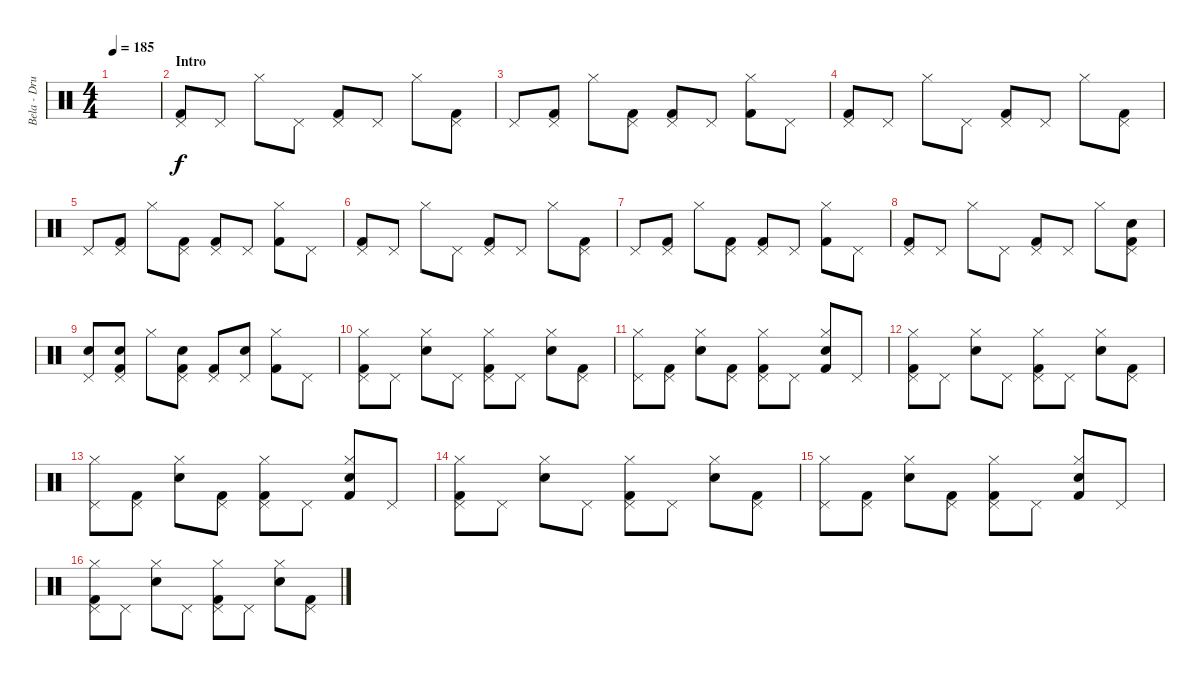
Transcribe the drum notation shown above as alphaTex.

\track ("Bela - Drums" "Bela - Dru") {instrument percussion}
\staff {score}
\articulation defaults
\ts (4 4)
\tempo 185
\clef neutral
\ks c
|
\section ("" "Intro")
("Kick (hit) 2" "Pedal Hi-Hat (hit)").8 "Pedal Hi-Hat (hit)".8 "Hi-Hat (closed)".8 "Pedal Hi-Hat (hit)".8 ("Pedal Hi-Hat (hit)" "Kick (hit) 2").8 "Pedal Hi-Hat (hit)".8 "Hi-Hat (closed)".8 ("Pedal Hi-Hat (hit)" "Kick (hit) 2").8 |
"Pedal Hi-Hat (hit)".8 ("Pedal Hi-Hat (hit)" "Kick (hit) 2").8 "Hi-Hat (closed)".8 ("Pedal Hi-Hat (hit)" "Kick (hit) 2").8 ("Kick (hit) 2" "Pedal Hi-Hat (hit)").8 "Pedal Hi-Hat (hit)".8 ("Hi-Hat (closed)" "Kick (hit) 2").8 "Pedal Hi-Hat (hit)".8 |
("Pedal Hi-Hat (hit)" "Kick (hit) 2").8 "Pedal Hi-Hat (hit)".8 "Hi-Hat (closed)".8 "Pedal Hi-Hat (hit)".8 ("Kick (hit) 2" "Pedal Hi-Hat (hit)").8 "Pedal Hi-Hat (hit)".8 "Hi-Hat (closed)".8 ("Pedal Hi-Hat (hit)" "Kick (hit) 2").8 |
"Pedal Hi-Hat (hit)".8 ("Kick (hit) 2" "Pedal Hi-Hat (hit)").8 "Hi-Hat (closed)".8 ("Kick (hit) 2" "Pedal Hi-Hat (hit)").8 ("Kick (hit) 2" "Pedal Hi-Hat (hit)").8 "Pedal Hi-Hat (hit)".8 ("Hi-Hat (closed)" "Kick (hit) 2").8 "Pedal Hi-Hat (hit)".8 |
("Kick (hit) 2" "Pedal Hi-Hat (hit)").8 "Pedal Hi-Hat (hit)".8 "Hi-Hat (closed)".8 "Pedal Hi-Hat (hit)".8 ("Pedal Hi-Hat (hit)" "Kick (hit) 2").8 "Pedal Hi-Hat (hit)".8 "Hi-Hat (closed)".8 ("Pedal Hi-Hat (hit)" "Kick (hit) 2").8 |
"Pedal Hi-Hat (hit)".8 ("Pedal Hi-Hat (hit)" "Kick (hit) 2").8 "Hi-Hat (closed)".8 ("Pedal Hi-Hat (hit)" "Kick (hit) 2").8 ("Kick (hit) 2" "Pedal Hi-Hat (hit)").8 "Pedal Hi-Hat (hit)".8 ("Hi-Hat (closed)" "Kick (hit) 2").8 "Pedal Hi-Hat (hit)".8 |
("Pedal Hi-Hat (hit)" "Kick (hit) 2").8 "Pedal Hi-Hat (hit)".8 "Hi-Hat (closed)".8 "Pedal Hi-Hat (hit)".8 ("Kick (hit) 2" "Pedal Hi-Hat (hit)").8 "Pedal Hi-Hat (hit)".8 "Hi-Hat (closed)".8 ("Electric Snare (hit)" "Pedal Hi-Hat (hit)" "Kick (hit) 2").8 |
("Pedal Hi-Hat (hit)" "Electric Snare (hit)").8 ("Kick (hit) 2" "Pedal Hi-Hat (hit)" "Electric Snare (hit)").8 "Hi-Hat (closed)".8 ("Kick (hit) 2" "Pedal Hi-Hat (hit)" "Electric Snare (hit)").8 ("Kick (hit) 2" "Pedal Hi-Hat (hit)").8 ("Electric Snare (hit)" "Pedal Hi-Hat (hit)").8 ("Hi-Hat (closed)" "Kick (hit) 2").8 "Pedal Hi-Hat (hit)".8 |
("Hi-Hat (closed)" "Kick (hit) 2" "Pedal Hi-Hat (hit)").8 "Pedal Hi-Hat (hit)".8 ("Electric Snare (hit)" "Hi-Hat (closed)").8 "Pedal Hi-Hat (hit)".8 ("Hi-Hat (closed)" "Pedal Hi-Hat (hit)" "Kick (hit) 2").8 "Pedal Hi-Hat (hit)".8 ("Electric Snare (hit)" "Hi-Hat (closed)").8 ("Pedal Hi-Hat (hit)" "Kick (hit) 2").8 |
("Hi-Hat (closed)" "Pedal Hi-Hat (hit)").8 ("Pedal Hi-Hat (hit)" "Kick (hit) 2").8 ("Hi-Hat (closed)" "Electric Snare (hit)").8 ("Pedal Hi-Hat (hit)" "Kick (hit) 2").8 ("Hi-Hat (closed)" "Kick (hit) 2" "Pedal Hi-Hat (hit)").8 "Pedal Hi-Hat (hit)".8 ("Hi-Hat (closed)" "Electric Snare (hit)" "Kick (hit) 2").8 "Pedal Hi-Hat (hit)".8 |
("Hi-Hat (closed)" "Pedal Hi-Hat (hit)" "Kick (hit) 2").8 "Pedal Hi-Hat (hit)".8 ("Hi-Hat (closed)" "Electric Snare (hit)").8 "Pedal Hi-Hat (hit)".8 ("Hi-Hat (closed)" "Kick (hit) 2" "Pedal Hi-Hat (hit)").8 "Pedal Hi-Hat (hit)".8 ("Hi-Hat (closed)" "Electric Snare (hit)").8 ("Pedal Hi-Hat (hit)" "Kick (hit) 2").8 |
("Hi-Hat (closed)" "Pedal Hi-Hat (hit)").8 ("Kick (hit) 2" "Pedal Hi-Hat (hit)").8 ("Hi-Hat (closed)" "Electric Snare (hit)").8 ("Kick (hit) 2" "Pedal Hi-Hat (hit)").8 ("Kick (hit) 2" "Hi-Hat (closed)" "Pedal Hi-Hat (hit)").8 "Pedal Hi-Hat (hit)".8 ("Hi-Hat (closed)" "Kick (hit) 2" "Electric Snare (hit)").8 "Pedal Hi-Hat (hit)".8 |
("Hi-Hat (closed)" "Pedal Hi-Hat (hit)" "Kick (hit) 2").8 "Pedal Hi-Hat (hit)".8 ("Hi-Hat (closed)" "Electric Snare (hit)").8 "Pedal Hi-Hat (hit)".8 ("Hi-Hat (closed)" "Kick (hit) 2" "Pedal Hi-Hat (hit)").8 "Pedal Hi-Hat (hit)".8 ("Hi-Hat (closed)" "Electric Snare (hit)").8 ("Pedal Hi-Hat (hit)" "Kick (hit) 2").8 |
("Hi-Hat (closed)" "Pedal Hi-Hat (hit)").8 ("Kick (hit) 2" "Pedal Hi-Hat (hit)").8 ("Hi-Hat (closed)" "Electric Snare (hit)").8 ("Kick (hit) 2" "Pedal Hi-Hat (hit)").8 ("Kick (hit) 2" "Hi-Hat (closed)" "Pedal Hi-Hat (hit)").8 "Pedal Hi-Hat (hit)".8 ("Hi-Hat (closed)" "Kick (hit) 2" "Electric Snare (hit)").8 "Pedal Hi-Hat (hit)".8 |
("Hi-Hat (closed)" "Pedal Hi-Hat (hit)" "Kick (hit) 2").8 "Pedal Hi-Hat (hit)".8 ("Hi-Hat (closed)" "Electric Snare (hit)").8 "Pedal Hi-Hat (hit)".8 ("Hi-Hat (closed)" "Kick (hit) 2" "Pedal Hi-Hat (hit)").8 "Pedal Hi-Hat (hit)".8 ("Hi-Hat (closed)" "Electric Snare (hit)").8 ("Pedal Hi-Hat (hit)" "Kick (hit) 2").8
